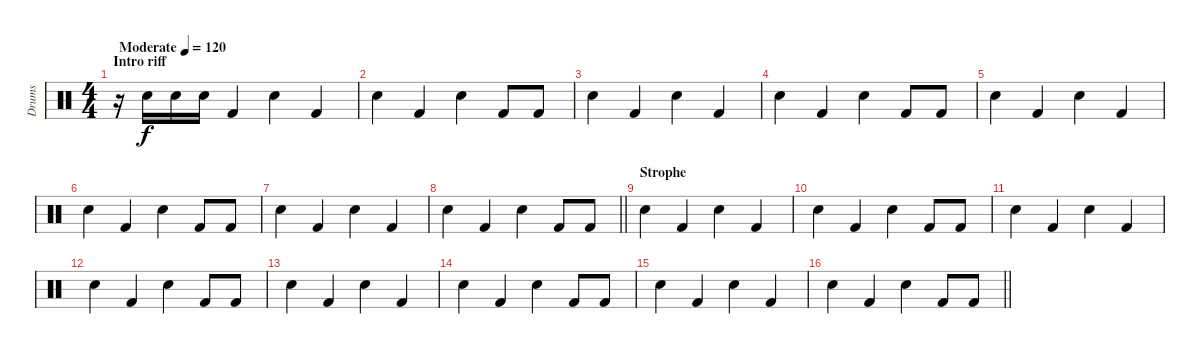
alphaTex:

\track ("Drums" "Drums") {instrument percussion}
\staff {score}
\articulation defaults
\ts (4 4)
\section ("" "Intro riff")
\tempo (120 "Moderate")
\clef neutral
\ks c
r.16{dy f} "Snare (hit) 2".16 "Snare (hit) 2".16 "Snare (hit) 2".16 "Kick (hit) 2".4 "Snare (hit) 2".4 "Kick (hit) 2".4 |
"Snare (hit) 2".4 "Kick (hit) 2".4 "Snare (hit) 2".4 "Kick (hit) 2".8 "Kick (hit) 2".8 |
"Snare (hit) 2".4 "Kick (hit) 2".4 "Snare (hit) 2".4 "Kick (hit) 2".4 |
"Snare (hit) 2".4 "Kick (hit) 2".4 "Snare (hit) 2".4 "Kick (hit) 2".8 "Kick (hit) 2".8 |
"Snare (hit) 2".4 "Kick (hit) 2".4 "Snare (hit) 2".4 "Kick (hit) 2".4 |
"Snare (hit) 2".4 "Kick (hit) 2".4 "Snare (hit) 2".4 "Kick (hit) 2".8 "Kick (hit) 2".8 |
"Snare (hit) 2".4 "Kick (hit) 2".4 "Snare (hit) 2".4 "Kick (hit) 2".4 |
\barLineRight lightlight "Snare (hit) 2".4 "Kick (hit) 2".4 "Snare (hit) 2".4 "Kick (hit) 2".8 "Kick (hit) 2".8
|
\section ("" "Strophe")
"Snare (hit) 2".4 "Kick (hit) 2".4 "Snare (hit) 2".4 "Kick (hit) 2".4 |
"Snare (hit) 2".4 "Kick (hit) 2".4 "Snare (hit) 2".4 "Kick (hit) 2".8 "Kick (hit) 2".8 |
"Snare (hit) 2".4 "Kick (hit) 2".4 "Snare (hit) 2".4 "Kick (hit) 2".4 |
"Snare (hit) 2".4 "Kick (hit) 2".4 "Snare (hit) 2".4 "Kick (hit) 2".8 "Kick (hit) 2".8 |
"Snare (hit) 2".4 "Kick (hit) 2".4 "Snare (hit) 2".4 "Kick (hit) 2".4 |
"Snare (hit) 2".4 "Kick (hit) 2".4 "Snare (hit) 2".4 "Kick (hit) 2".8 "Kick (hit) 2".8 |
"Snare (hit) 2".4 "Kick (hit) 2".4 "Snare (hit) 2".4 "Kick (hit) 2".4 |
\barLineRight lightlight "Snare (hit) 2".4 "Kick (hit) 2".4 "Snare (hit) 2".4 "Kick (hit) 2".8 "Kick (hit) 2".8
